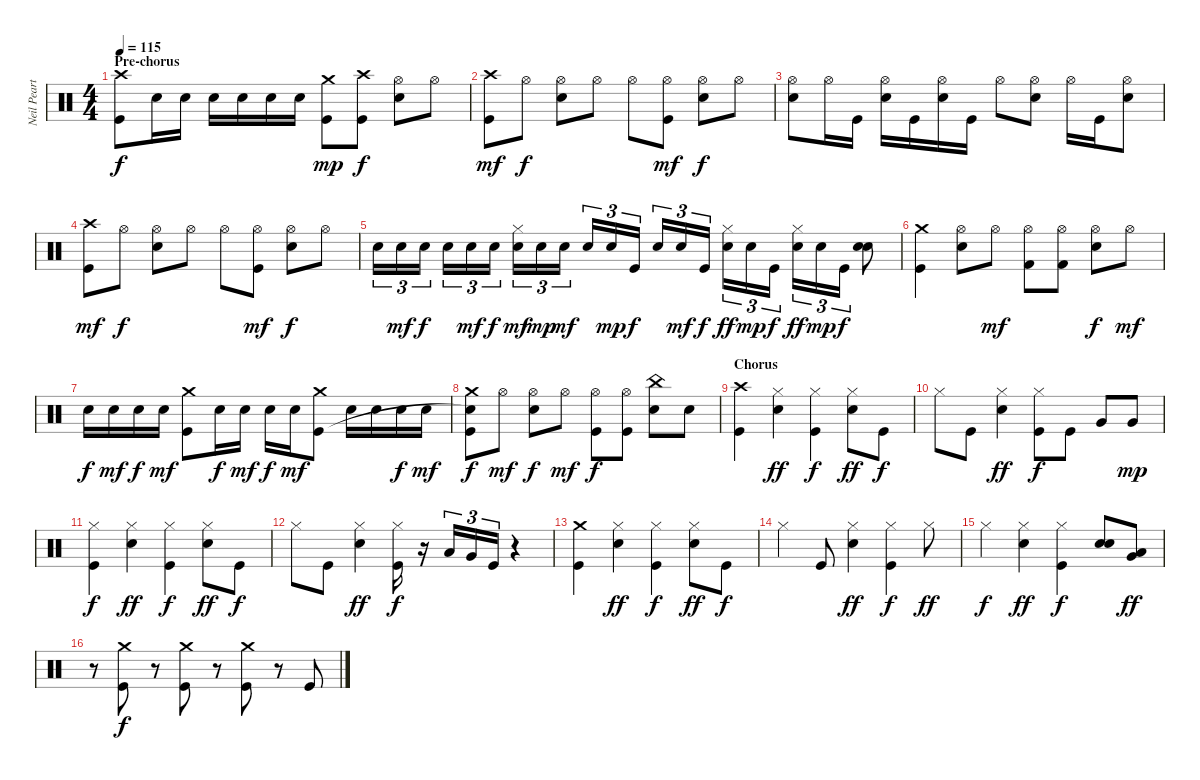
\track ("Neil Peart - Drums" "Neil Peart") {instrument percussion}
\staff {score}
\articulation defaults
\ts (4 4)
\section ("" "Pre-chorus")
\tempo 115
\clef neutral
\ks c
("Crash high (hit)" "Kick (hit)").8{dy f} "Electric Snare (hit)".16 "Electric Snare (hit)".16 "Electric Snare (hit)".16 "Electric Snare (hit)".16 "Electric Snare (hit)".16 "Electric Snare (hit)".16 ("Crash medium (hit)" "Kick (hit)").8{dy mp} ("Crash high (hit)" "Kick (hit)").8{dy f} ("Hi-Hat (open)" "Electric Snare (hit)").8 "Hi-Hat (open)".8 |
("Crash high (hit)" "Kick (hit)").8{dy mf} "Hi-Hat (open)".8{dy f} ("Hi-Hat (open)" "Electric Snare (hit)").8 "Hi-Hat (open)".8 "Hi-Hat (open)".8 ("Hi-Hat (open)" "Kick (hit)").8{dy mf} ("Hi-Hat (open)" "Electric Snare (hit)").8{dy f} "Hi-Hat (open)".8 |
("Hi-Hat (open)" "Electric Snare (hit)").8 "Hi-Hat (open)".16 "Kick (hit)".16 ("Hi-Hat (open)" "Electric Snare (hit)").16 "Kick (hit)".16 ("Hi-Hat (open)" "Electric Snare (hit)").16 "Kick (hit)".16 "Hi-Hat (open)".8 ("Hi-Hat (open)" "Electric Snare (hit)").8 "Hi-Hat (open)".16 "Kick (hit)".16 ("Hi-Hat (open)" "Electric Snare (hit)").8 |
("Crash high (hit)" "Kick (hit)").8{dy mf} "Hi-Hat (open)".8{dy f} ("Hi-Hat (open)" "Electric Snare (hit)").8 "Hi-Hat (open)".8 "Hi-Hat (open)".8 ("Hi-Hat (open)" "Kick (hit)").8{dy mf} ("Hi-Hat (open)" "Electric Snare (hit)").8{dy f} "Hi-Hat (open)".8 |
"Electric Snare (hit)".16{tu (3 2)} "Electric Snare (hit)".16{tu (3 2) dy mf} "Electric Snare (hit)".16{tu (3 2) dy f} "Electric Snare (hit)".16{tu (3 2)} "Electric Snare (hit)".16{tu (3 2) dy mf} "Electric Snare (hit)".16{tu (3 2) dy f} ("Electric Snare (hit)" "Hi-Hat (closed)").16{tu (3 2) dy mf} "Electric Snare (hit)".16{tu (3 2) dy mp} "Electric Snare (hit)".16{tu (3 2) dy mf} "Electric Snare (hit)".16{tu (3 2)} "Electric Snare (hit)".16{tu (3 2) dy mp} "Kick (hit)".16{tu (3 2) dy f} "Electric Snare (hit)".16{tu (3 2)} "Electric Snare (hit)".16{tu (3 2) dy mf} "Kick (hit)".16{tu (3 2) dy f} ("Electric Snare (hit)" "Hi-Hat (closed)").16{tu (3 2) dy ff} "Electric Snare (hit)".16{tu (3 2) dy mp} "Kick (hit)".16{tu (3 2) dy f} ("Electric Snare (hit)" "Hi-Hat (closed)").16{tu (3 2) dy ff} "Electric Snare (hit)".16{tu (3 2) dy mp} "Kick (hit)".16{tu (3 2) dy f} ("Electric Snare (hit)" "Electric Snare (hit)").8 |
("Crash medium (hit)" "Kick (hit)").4 ("Hi-Hat (open)" "Electric Snare (hit)").8 "Hi-Hat (open)".8{dy mf} ("Hi-Hat (open)" "Kick (hit) 2").8 ("Hi-Hat (open)" "Kick (hit) 2").8 ("Hi-Hat (open)" "Snare (hit) 2").8{dy f} "Hi-Hat (open)".8{dy mf} |
"Electric Snare (hit)".16{dy f} "Electric Snare (hit)".16{dy mf} "Electric Snare (hit)".16{dy f} "Electric Snare (hit)".16{dy mf} ("Crash medium (hit)" "Kick (hit)").8 "Electric Snare (hit)".16{dy f} "Electric Snare (hit)".16{dy mf} "Electric Snare (hit)".16{dy f} "Electric Snare (hit)".16{dy mf} ("Crash medium (hit)" "Kick (hit)").8 "Electric Snare (hit)".16 "Electric Snare (hit)".16 "Electric Snare (hit)".16{dy f} "Electric Snare (hit)".16{dy mf} |
("Crash medium (hit)" "Snare (hit)"{t} "Kick (hit)").8{dy f} "Hi-Hat (open)".8{dy mf} ("Hi-Hat (open)" "Electric Snare (hit)").8{dy f} "Hi-Hat (open)".8{dy mf} ("Hi-Hat (open)" "Kick (hit)").8{dy f} ("Hi-Hat (open)" "Kick (hit)").8 ("China (hit)" "Electric Snare (hit)").8 "Electric Snare (hit)".8 |
\section ("" "Chorus")
("Crash high (hit)" "Kick (hit)").4 ("Hi-Hat (closed)" "Electric Snare (hit)").4{dy ff} ("Hi-Hat (closed)" "Kick (hit)").4{dy f} ("Hi-Hat (closed)" "Electric Snare (hit)").8{dy ff} "Kick (hit)".8{dy f} |
"Hi-Hat (closed)".8 "Kick (hit)".8 ("Hi-Hat (closed)" "Electric Snare (hit)").4{dy ff} ("Hi-Hat (closed)" "Kick (hit)").8{dy f} "Kick (hit)".8 "Very Low Tom (hit)".8 "Very Low Tom (hit)".8{dy mp} |
("Hi-Hat (closed)" "Kick (hit)").4{dy f} ("Hi-Hat (closed)" "Electric Snare (hit)").4{dy ff} ("Hi-Hat (closed)" "Kick (hit)").4{dy f} ("Hi-Hat (closed)" "Electric Snare (hit)").8{dy ff} "Kick (hit)".8{dy f} |
"Hi-Hat (closed)".8 "Kick (hit)".8 ("Hi-Hat (closed)" "Electric Snare (hit)").4{dy ff} ("Hi-Hat (closed)" "Kick (hit)").16{dy f} r.16 "Low Tom (hit)".16{tu (3 2)} "Very Low Tom (hit)".16{tu (3 2)} "Kick (hit)".16{tu (3 2)} r.4 |
("Crash medium (hit)" "Kick (hit)").4 ("Hi-Hat (closed)" "Electric Snare (hit)").4{dy ff} ("Hi-Hat (closed)" "Kick (hit)").4{dy f} ("Hi-Hat (closed)" "Electric Snare (hit)").8{dy ff} "Kick (hit)".8{dy f} |
"Hi-Hat (closed)".4 "Kick (hit)".8 ("Hi-Hat (closed)" "Electric Snare (hit)").4{dy ff} ("Hi-Hat (closed)" "Kick (hit)").4{dy f} "Hi-Hat (closed)".8{dy ff} |
"Hi-Hat (closed)".4{dy f} ("Hi-Hat (closed)" "Electric Snare (hit)").4{dy ff} ("Hi-Hat (closed)" "Kick (hit)").4{dy f} ("Electric Snare (hit)" "Electric Snare (hit)").8 ("Very Low Tom (hit)" "Low Floor Tom (hit)").8{dy ff} |
r.8 ("Crash medium (hit)" "Kick (hit)").8{dy f} r.8 ("Crash medium (hit)" "Kick (hit)").8 r.8 ("Crash medium (hit)" "Kick (hit)").8 r.8 "Kick (hit)".8
